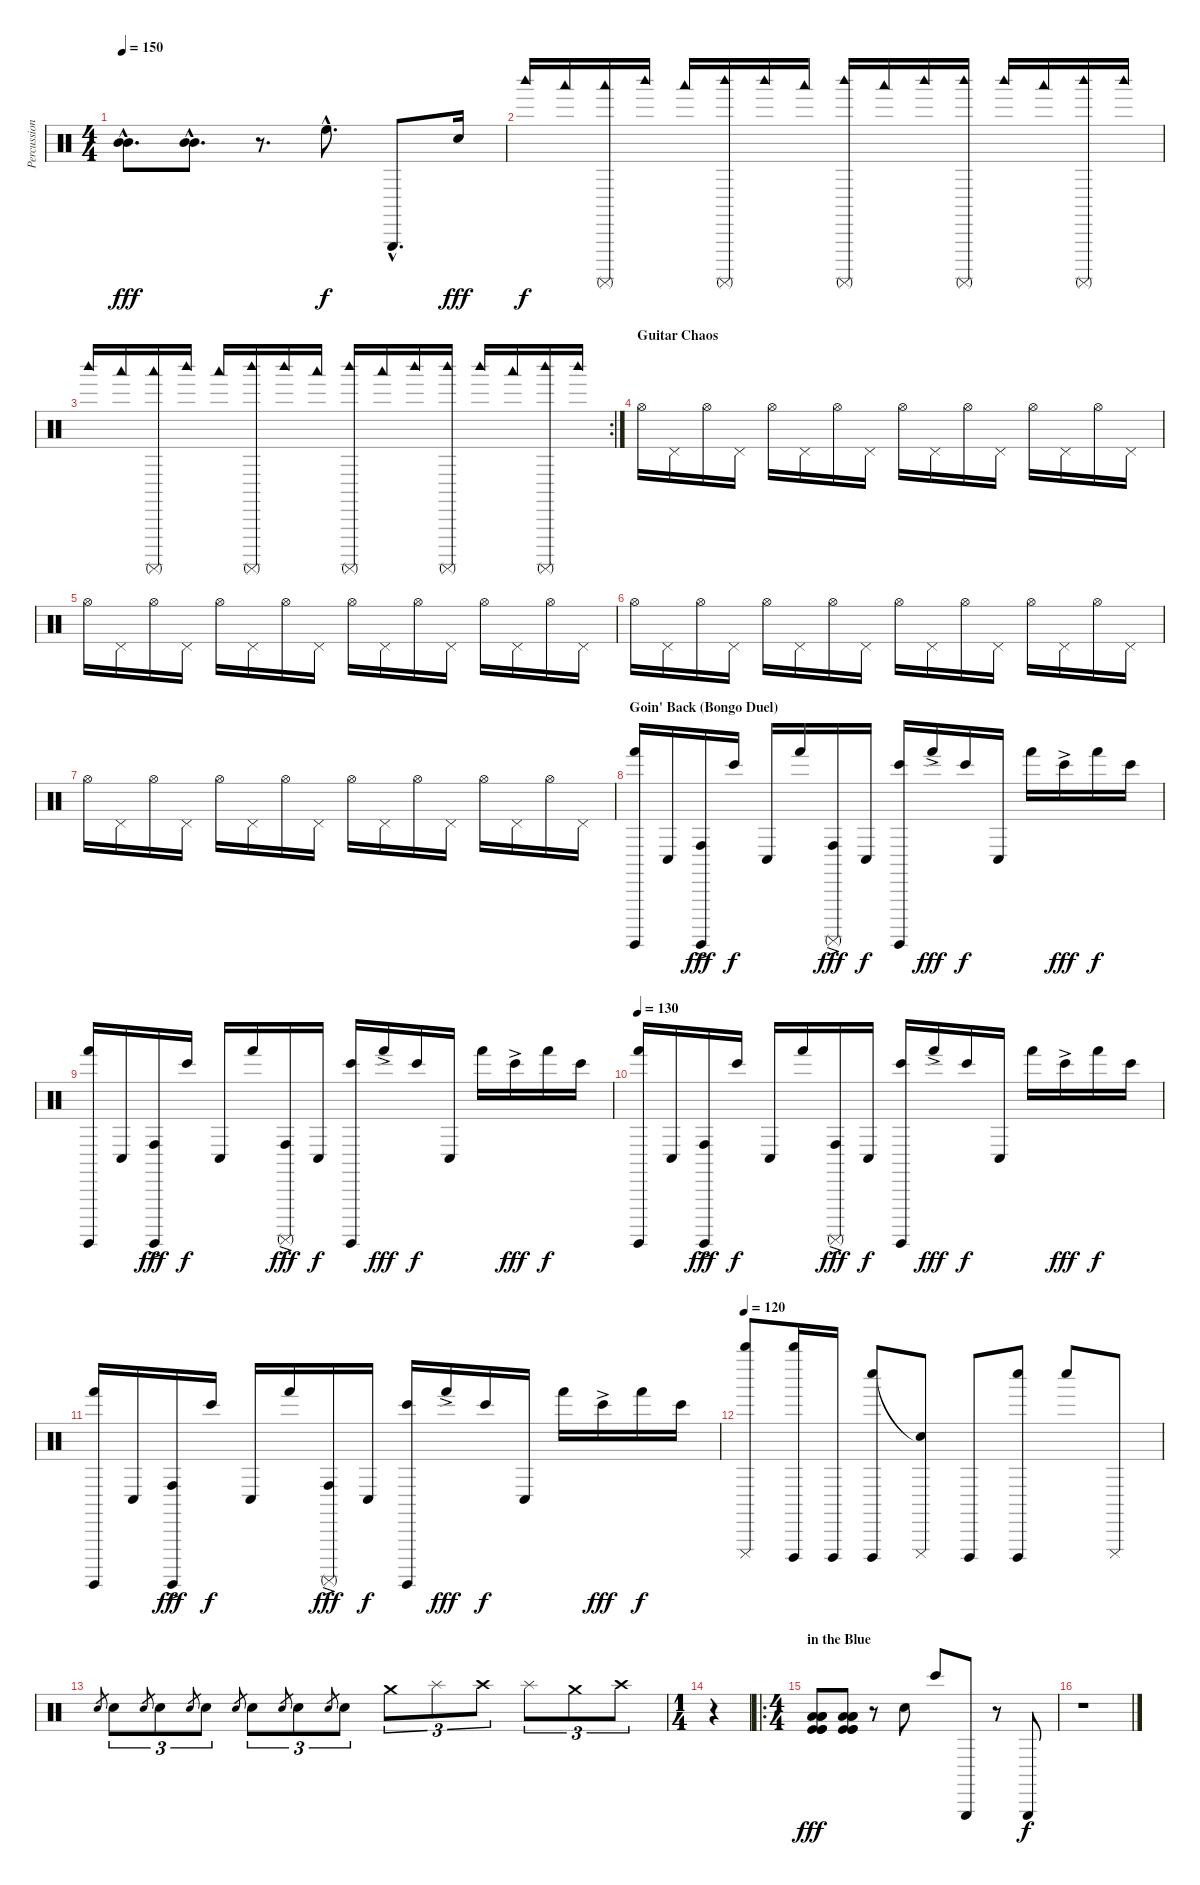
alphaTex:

\track ("Percussion" "Percussion") {instrument percussion}
\staff {score}
\articulation defaults
\ts (4 4)
\tempo 150
\clef neutral
\ks c
("Mid Tom (hit)"{hac} "Mid Tom (hit)"{hac}).8{d dy fff} ("Mid Tom (hit)"{hac} "Mid Tom (hit)"{hac}).8{d} r.8{d} "High Floor Tom (hit)"{hac}.8{d dy f} "Triangle (hit)"{hac}.8{d} "Hand Clap (hit)".16{dy fff} |
"Woodblock high (hit)".16{dy f} "Woodblock low (hit)".16 ("Woodblock low (hit)" "Surdo (mute)").16 "Woodblock high (hit)".16 "Woodblock low (hit)".16 ("Woodblock high (hit)" "Surdo (mute)").16 "Woodblock high (hit)".16 "Woodblock low (hit)".16 ("Woodblock high (hit)" "Surdo (mute)").16 "Woodblock low (hit)".16 "Woodblock high (hit)".16 ("Woodblock high (hit)" "Surdo (mute)").16 "Woodblock high (hit)".16 "Woodblock low (hit)".16 ("Woodblock high (hit)" "Surdo (mute)").16 "Woodblock high (hit)".16 |
\rc 2 "Woodblock high (hit)".16 "Woodblock low (hit)".16
("Woodblock low (hit)" "Surdo (mute)").16 "Woodblock high (hit)".16 "Woodblock low (hit)".16 ("Woodblock high (hit)" "Surdo (mute)").16 "Woodblock high (hit)".16 "Woodblock low (hit)".16 ("Woodblock high (hit)" "Surdo (mute)").16 "Woodblock low (hit)".16 "Woodblock high (hit)".16 ("Woodblock high (hit)" "Surdo (mute)").16 "Woodblock high (hit)".16 "Woodblock low (hit)".16 ("Woodblock high (hit)" "Surdo (mute)").16 "Woodblock high (hit)".16 |
\section ("" "Guitar Chaos")
"Hi-Hat (open)".16 "Pedal Hi-Hat (hit)".16 "Hi-Hat (open)".16 "Pedal Hi-Hat (hit)".16 "Hi-Hat (open)".16 "Pedal Hi-Hat (hit)".16 "Hi-Hat (open)".16 "Pedal Hi-Hat (hit)".16 "Hi-Hat (open)".16 "Pedal Hi-Hat (hit)".16 "Hi-Hat (open)".16 "Pedal Hi-Hat (hit)".16 "Hi-Hat (open)".16 "Pedal Hi-Hat (hit)".16 "Hi-Hat (open)".16 "Pedal Hi-Hat (hit)".16 |
"Hi-Hat (open)".16 "Pedal Hi-Hat (hit)".16 "Hi-Hat (open)".16 "Pedal Hi-Hat (hit)".16 "Hi-Hat (open)".16 "Pedal Hi-Hat (hit)".16 "Hi-Hat (open)".16 "Pedal Hi-Hat (hit)".16 "Hi-Hat (open)".16 "Pedal Hi-Hat (hit)".16 "Hi-Hat (open)".16 "Pedal Hi-Hat (hit)".16 "Hi-Hat (open)".16 "Pedal Hi-Hat (hit)".16 "Hi-Hat (open)".16 "Pedal Hi-Hat (hit)".16 |
"Hi-Hat (open)".16 "Pedal Hi-Hat (hit)".16 "Hi-Hat (open)".16 "Pedal Hi-Hat (hit)".16 "Hi-Hat (open)".16 "Pedal Hi-Hat (hit)".16 "Hi-Hat (open)".16 "Pedal Hi-Hat (hit)".16 "Hi-Hat (open)".16 "Pedal Hi-Hat (hit)".16 "Hi-Hat (open)".16 "Pedal Hi-Hat (hit)".16 "Hi-Hat (open)".16 "Pedal Hi-Hat (hit)".16 "Hi-Hat (open)".16 "Pedal Hi-Hat (hit)".16 |
"Hi-Hat (open)".16 "Pedal Hi-Hat (hit)".16 "Hi-Hat (open)".16 "Pedal Hi-Hat (hit)".16 "Hi-Hat (open)".16 "Pedal Hi-Hat (hit)".16 "Hi-Hat (open)".16 "Pedal Hi-Hat (hit)".16 "Hi-Hat (open)".16 "Pedal Hi-Hat (hit)".16 "Hi-Hat (open)".16 "Pedal Hi-Hat (hit)".16 "Hi-Hat (open)".16 "Pedal Hi-Hat (hit)".16 "Hi-Hat (open)".16 "Pedal Hi-Hat (hit)".16 |
\section ("" "Goin' Back (Bongo Duel)")
("Hand (hit)" "Surdo (hit)").16 "Conga low (hit)".16 ("Conga high (hit)"{ac} "Surdo (hit)").16{dy fff} "Bongo High (hit)".16{dy f} "Conga low (hit)".16 "Hand (hit)".16 ("Conga high (hit)"{ac} "Surdo (mute)").16{dy fff} "Conga low (hit)".16{dy f} ("Bongo High (hit)" "Surdo (hit)").16 "Hand (hit)"{ac}.16{dy fff} "Bongo High (hit)".16{dy f} "Conga low (hit)".16 "Hand (hit)".16 "Bongo High (hit)"{ac}.16{dy fff} "Hand (hit)".16{dy f} "Bongo High (hit)".16 |
("Hand (hit)" "Surdo (hit)").16 "Conga low (hit)".16 ("Conga high (hit)"{ac} "Surdo (hit)").16{dy fff} "Bongo High (hit)".16{dy f} "Conga low (hit)".16 "Hand (hit)".16 ("Conga high (hit)"{ac} "Surdo (mute)").16{dy fff} "Conga low (hit)".16{dy f} ("Bongo High (hit)" "Surdo (hit)").16 "Hand (hit)"{ac}.16{dy fff} "Bongo High (hit)".16{dy f} "Conga low (hit)".16 "Hand (hit)".16 "Bongo High (hit)"{ac}.16{dy fff} "Hand (hit)".16{dy f} "Bongo High (hit)".16 |
\tempo 130
("Hand (hit)" "Surdo (hit)").16 "Conga low (hit)".16 ("Conga high (hit)"{ac} "Surdo (hit)").16{dy fff} "Bongo High (hit)".16{dy f} "Conga low (hit)".16 "Hand (hit)".16 ("Conga high (hit)"{ac} "Surdo (mute)").16{dy fff} "Conga low (hit)".16{dy f} ("Bongo High (hit)" "Surdo (hit)").16 "Hand (hit)"{ac}.16{dy fff} "Bongo High (hit)".16{dy f} "Conga low (hit)".16 "Hand (hit)".16 "Bongo High (hit)"{ac}.16{dy fff} "Hand (hit)".16{dy f} "Bongo High (hit)".16 |
("Hand (hit)" "Surdo (hit)").16 "Conga low (hit)".16 ("Conga high (hit)"{ac} "Surdo (hit)").16{dy fff} "Bongo High (hit)".16{dy f} "Conga low (hit)".16 "Hand (hit)".16 ("Conga high (hit)"{ac} "Surdo (mute)").16{dy fff} "Conga low (hit)".16{dy f} ("Bongo High (hit)" "Surdo (hit)").16 "Hand (hit)"{ac}.16{dy fff} "Bongo High (hit)".16{dy f} "Conga low (hit)".16 "Hand (hit)".16 "Bongo High (hit)"{ac}.16{dy fff} "Hand (hit)".16{dy f} "Bongo High (hit)".16 |
\tempo 120
("Cuica (mute)" "Whistle high (hit)").8 ("Cuica (open)" "Whistle high (hit)").16 "Cuica (open)".16 ("Cuica (open)" "Whistle low (hit)").8 ("Cuica (mute)" "Snare (hit)"{t}).8 "Cuica (open)".8 ("Cuica (open)" "Whistle low (hit)").8 "Whistle low (hit)".8 "Cuica (mute)".8 |
"Electric Snare (hit)".8{gr} "Snare (hit) 2".8{tu (3 2)} "Electric Snare (hit)".8{gr} "Snare (hit) 2".8{tu (3 2)} "Electric Snare (hit)".8{gr} "Snare (hit) 2".8{tu (3 2)} "Electric Snare (hit)".8{gr} "Snare (hit) 2".8{tu (3 2)} "Electric Snare (hit)".8{gr} "Snare (hit) 2".8{tu (3 2)} "Electric Snare (hit)".8{gr} "Snare (hit) 2".8{tu (3 2)} "Crash medium (hit)".8{tu (3 2)} "Splash (hit)".8{tu (3 2)} "Crash high (hit)".8{tu (3 2)} "Splash (hit)".8{tu (3 2)} "Crash medium (hit)".8{tu (3 2)} "Crash high (hit)".8{tu (3 2)} |
\ts (1 4)
r.4 |
\ro
\ts (4 4)
\section ("" "in the Blue")
("Low Floor Tom (hit)" "Low Floor Tom (hit)" "Low Floor Tom (hit)" "Kick (hit)" "Kick (hit)" "Kick (hit)").8{dy fff} ("Low Floor Tom (hit)" "Low Floor Tom (hit)" "Low Floor Tom (hit)" "Kick (hit)" "Kick (hit)" "Kick (hit)").8 r.8 "Hand Clap (hit)".8 "Bongo High (hit)".8 "Triangle (hit)".8 r.8 "Triangle (hit)".8{dy f} |
r.1
